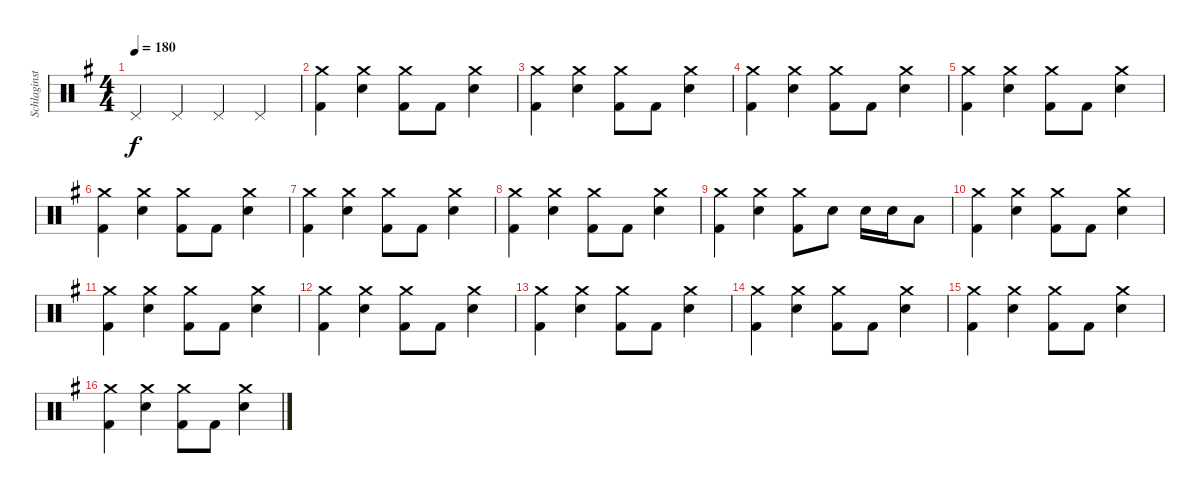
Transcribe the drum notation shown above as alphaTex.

\track ("Schlaginstrumente - Auswahl" "Schlaginst") {instrument percussion}
\staff {score}
\articulation defaults
\ts (4 4)
\tempo 180
\clef neutral
\ks g "Pedal Hi-Hat (hit)".4{dy f} "Pedal Hi-Hat (hit)".4 "Pedal Hi-Hat (hit)".4 "Pedal Hi-Hat (hit)".4
|
("Crash medium (hit)" "Kick (hit) 2").4 ("Crash medium (hit)" "Electric Snare (hit)").4 ("Crash medium (hit)" "Kick (hit) 2").8 "Kick (hit) 2".8 ("Crash medium (hit)" "Electric Snare (hit)").4 |
("Crash medium (hit)" "Kick (hit) 2").4 ("Crash medium (hit)" "Electric Snare (hit)").4 ("Crash medium (hit)" "Kick (hit) 2").8 "Kick (hit) 2".8 ("Crash medium (hit)" "Electric Snare (hit)").4 |
("Crash medium (hit)" "Kick (hit) 2").4 ("Crash medium (hit)" "Electric Snare (hit)").4 ("Crash medium (hit)" "Kick (hit) 2").8 "Kick (hit) 2".8 ("Crash medium (hit)" "Electric Snare (hit)").4 |
("Crash medium (hit)" "Kick (hit) 2").4 ("Crash medium (hit)" "Electric Snare (hit)").4 ("Crash medium (hit)" "Kick (hit) 2").8 "Kick (hit) 2".8 ("Crash medium (hit)" "Electric Snare (hit)").4 |
("Crash medium (hit)" "Kick (hit) 2").4 ("Crash medium (hit)" "Electric Snare (hit)").4 ("Crash medium (hit)" "Kick (hit) 2").8 "Kick (hit) 2".8 ("Crash medium (hit)" "Electric Snare (hit)").4 |
("Crash medium (hit)" "Kick (hit) 2").4 ("Crash medium (hit)" "Electric Snare (hit)").4 ("Crash medium (hit)" "Kick (hit) 2").8 "Kick (hit) 2".8 ("Crash medium (hit)" "Electric Snare (hit)").4 |
("Crash medium (hit)" "Kick (hit) 2").4 ("Crash medium (hit)" "Electric Snare (hit)").4 ("Crash medium (hit)" "Kick (hit) 2").8 "Kick (hit) 2".8 ("Crash medium (hit)" "Electric Snare (hit)").4 |
("Crash medium (hit)" "Kick (hit) 2").4 ("Crash medium (hit)" "Electric Snare (hit)").4 ("Crash medium (hit)" "Kick (hit) 2").8 "Electric Snare (hit)".8 "Electric Snare (hit)".16 "Electric Snare (hit)".16 "Low Tom (hit)".8 |
("Crash medium (hit)" "Kick (hit) 2").4 ("Crash medium (hit)" "Electric Snare (hit)").4 ("Crash medium (hit)" "Kick (hit) 2").8 "Kick (hit) 2".8 ("Crash medium (hit)" "Electric Snare (hit)").4 |
("Crash medium (hit)" "Kick (hit) 2").4 ("Crash medium (hit)" "Electric Snare (hit)").4 ("Crash medium (hit)" "Kick (hit) 2").8 "Kick (hit) 2".8 ("Crash medium (hit)" "Electric Snare (hit)").4 |
("Crash medium (hit)" "Kick (hit) 2").4 ("Crash medium (hit)" "Electric Snare (hit)").4 ("Crash medium (hit)" "Kick (hit) 2").8 "Kick (hit) 2".8 ("Crash medium (hit)" "Electric Snare (hit)").4 |
("Crash medium (hit)" "Kick (hit) 2").4 ("Crash medium (hit)" "Electric Snare (hit)").4 ("Crash medium (hit)" "Kick (hit) 2").8 "Kick (hit) 2".8 ("Crash medium (hit)" "Electric Snare (hit)").4 |
("Crash medium (hit)" "Kick (hit) 2").4 ("Crash medium (hit)" "Electric Snare (hit)").4 ("Crash medium (hit)" "Kick (hit) 2").8 "Kick (hit) 2".8 ("Crash medium (hit)" "Electric Snare (hit)").4 |
("Crash medium (hit)" "Kick (hit) 2").4 ("Crash medium (hit)" "Electric Snare (hit)").4 ("Crash medium (hit)" "Kick (hit) 2").8 "Kick (hit) 2".8 ("Crash medium (hit)" "Electric Snare (hit)").4 |
("Crash medium (hit)" "Kick (hit) 2").4 ("Crash medium (hit)" "Electric Snare (hit)").4 ("Crash medium (hit)" "Kick (hit) 2").8 "Kick (hit) 2".8 ("Crash medium (hit)" "Electric Snare (hit)").4
